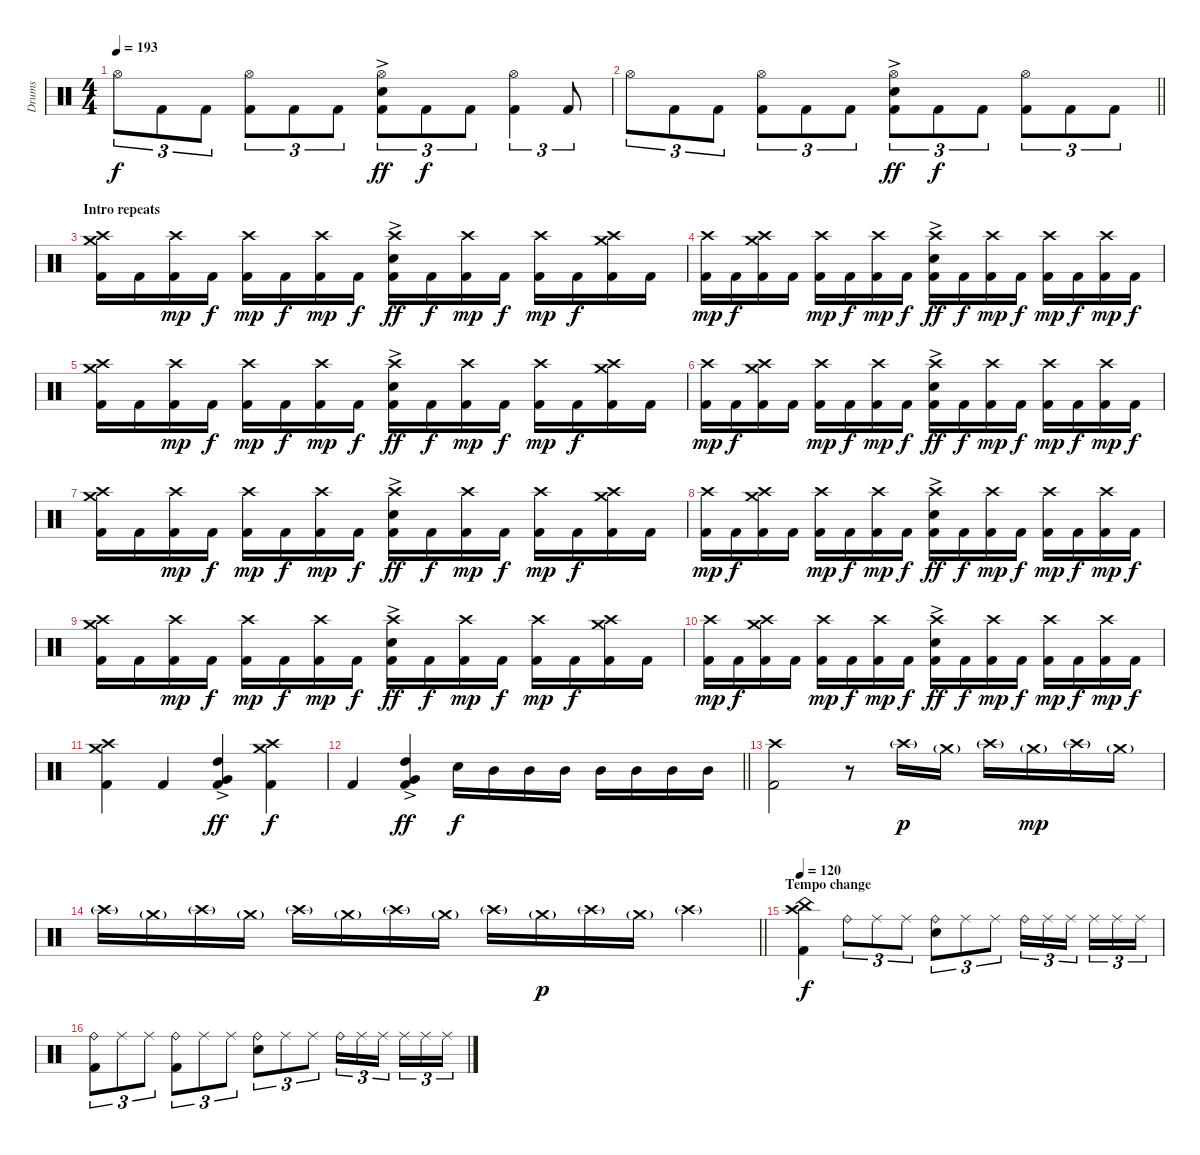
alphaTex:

\track ("Drums" "Drums") {instrument percussion}
\staff {score}
\articulation defaults
\ts (4 4)
\tempo 193
\clef neutral
\ks c "Hi-Hat (open)".8{tu (3 2) dy f} "Kick (hit) 2".8{tu (3 2)} "Kick (hit) 2".8{tu (3 2)}
("Hi-Hat (open)" "Kick (hit) 2").8{tu (3 2)} "Kick (hit) 2".8{tu (3 2)} "Kick (hit) 2".8{tu (3 2)} ("Hi-Hat (open)" "Electric Snare (hit)"{ac} "Kick (hit) 2").8{tu (3 2) dy ff} "Kick (hit) 2".8{tu (3 2) dy f} "Kick (hit) 2".8{tu (3 2)} ("Hi-Hat (open)" "Kick (hit) 2").4{tu (3 2)} "Kick (hit) 2".8{tu (3 2)} |
\barLineRight lightlight "Hi-Hat (open)".8{tu (3 2)} "Kick (hit) 2".8{tu (3 2)} "Kick (hit) 2".8{tu (3 2)}
("Hi-Hat (open)" "Kick (hit) 2").8{tu (3 2)} "Kick (hit) 2".8{tu (3 2)} "Kick (hit) 2".8{tu (3 2)} ("Hi-Hat (open)" "Electric Snare (hit)"{ac} "Kick (hit) 2").8{tu (3 2) dy ff} "Kick (hit) 2".8{tu (3 2) dy f} "Kick (hit) 2".8{tu (3 2)} ("Hi-Hat (open)" "Kick (hit) 2").8{tu (3 2)} "Kick (hit) 2".8{tu (3 2)} "Kick (hit) 2".8{tu (3 2)} |
\section ("" "Intro repeats")
("Crash high (hit)" "Crash medium (hit)" "Kick (hit) 2").16 "Kick (hit) 2".16 ("Crash high (hit)" "Kick (hit) 2").16{dy mp} "Kick (hit) 2".16{dy f} ("Crash high (hit)" "Kick (hit) 2").16{dy mp} "Kick (hit) 2".16{dy f} ("Crash high (hit)" "Kick (hit) 2").16{dy mp} "Kick (hit) 2".16{dy f} ("Crash high (hit)" "Electric Snare (hit)"{ac} "Kick (hit) 2").16{dy ff} "Kick (hit) 2".16{dy f} ("Crash high (hit)" "Kick (hit) 2").16{dy mp} "Kick (hit) 2".16{dy f} ("Crash high (hit)" "Kick (hit) 2").16{dy mp} "Kick (hit) 2".16{dy f} ("Crash high (hit)" "Crash medium (hit)" "Kick (hit) 2").16 "Kick (hit) 2".16 |
("Crash high (hit)" "Kick (hit) 2").16{dy mp} "Kick (hit) 2".16{dy f} ("Crash high (hit)" "Crash medium (hit)" "Kick (hit) 2").16 "Kick (hit) 2".16 ("Crash high (hit)" "Kick (hit) 2").16{dy mp} "Kick (hit) 2".16{dy f} ("Crash high (hit)" "Kick (hit) 2").16{dy mp} "Kick (hit) 2".16{dy f} ("Crash high (hit)" "Electric Snare (hit)"{ac} "Kick (hit) 2").16{dy ff} "Kick (hit) 2".16{dy f} ("Crash high (hit)" "Kick (hit) 2").16{dy mp} "Kick (hit) 2".16{dy f} ("Crash high (hit)" "Kick (hit) 2").16{dy mp} "Kick (hit) 2".16{dy f} ("Crash high (hit)" "Kick (hit) 2").16{dy mp} "Kick (hit) 2".16{dy f} |
("Crash high (hit)" "Crash medium (hit)" "Kick (hit) 2").16 "Kick (hit) 2".16 ("Crash high (hit)" "Kick (hit) 2").16{dy mp} "Kick (hit) 2".16{dy f} ("Crash high (hit)" "Kick (hit) 2").16{dy mp} "Kick (hit) 2".16{dy f} ("Crash high (hit)" "Kick (hit) 2").16{dy mp} "Kick (hit) 2".16{dy f} ("Crash high (hit)" "Electric Snare (hit)"{ac} "Kick (hit) 2").16{dy ff} "Kick (hit) 2".16{dy f} ("Crash high (hit)" "Kick (hit) 2").16{dy mp} "Kick (hit) 2".16{dy f} ("Crash high (hit)" "Kick (hit) 2").16{dy mp} "Kick (hit) 2".16{dy f} ("Crash high (hit)" "Crash medium (hit)" "Kick (hit) 2").16 "Kick (hit) 2".16 |
("Crash high (hit)" "Kick (hit) 2").16{dy mp} "Kick (hit) 2".16{dy f} ("Crash high (hit)" "Crash medium (hit)" "Kick (hit) 2").16 "Kick (hit) 2".16 ("Crash high (hit)" "Kick (hit) 2").16{dy mp} "Kick (hit) 2".16{dy f} ("Crash high (hit)" "Kick (hit) 2").16{dy mp} "Kick (hit) 2".16{dy f} ("Crash high (hit)" "Electric Snare (hit)"{ac} "Kick (hit) 2").16{dy ff} "Kick (hit) 2".16{dy f} ("Crash high (hit)" "Kick (hit) 2").16{dy mp} "Kick (hit) 2".16{dy f} ("Crash high (hit)" "Kick (hit) 2").16{dy mp} "Kick (hit) 2".16{dy f} ("Crash high (hit)" "Kick (hit) 2").16{dy mp} "Kick (hit) 2".16{dy f} |
("Crash high (hit)" "Crash medium (hit)" "Kick (hit) 2").16 "Kick (hit) 2".16 ("Crash high (hit)" "Kick (hit) 2").16{dy mp} "Kick (hit) 2".16{dy f} ("Crash high (hit)" "Kick (hit) 2").16{dy mp} "Kick (hit) 2".16{dy f} ("Crash high (hit)" "Kick (hit) 2").16{dy mp} "Kick (hit) 2".16{dy f} ("Crash high (hit)" "Electric Snare (hit)"{ac} "Kick (hit) 2").16{dy ff} "Kick (hit) 2".16{dy f} ("Crash high (hit)" "Kick (hit) 2").16{dy mp} "Kick (hit) 2".16{dy f} ("Crash high (hit)" "Kick (hit) 2").16{dy mp} "Kick (hit) 2".16{dy f} ("Crash high (hit)" "Crash medium (hit)" "Kick (hit) 2").16 "Kick (hit) 2".16 |
("Crash high (hit)" "Kick (hit) 2").16{dy mp} "Kick (hit) 2".16{dy f} ("Crash high (hit)" "Crash medium (hit)" "Kick (hit) 2").16 "Kick (hit) 2".16 ("Crash high (hit)" "Kick (hit) 2").16{dy mp} "Kick (hit) 2".16{dy f} ("Crash high (hit)" "Kick (hit) 2").16{dy mp} "Kick (hit) 2".16{dy f} ("Crash high (hit)" "Electric Snare (hit)"{ac} "Kick (hit) 2").16{dy ff} "Kick (hit) 2".16{dy f} ("Crash high (hit)" "Kick (hit) 2").16{dy mp} "Kick (hit) 2".16{dy f} ("Crash high (hit)" "Kick (hit) 2").16{dy mp} "Kick (hit) 2".16{dy f} ("Crash high (hit)" "Kick (hit) 2").16{dy mp} "Kick (hit) 2".16{dy f} |
("Crash high (hit)" "Crash medium (hit)" "Kick (hit) 2").16 "Kick (hit) 2".16 ("Crash high (hit)" "Kick (hit) 2").16{dy mp} "Kick (hit) 2".16{dy f} ("Crash high (hit)" "Kick (hit) 2").16{dy mp} "Kick (hit) 2".16{dy f} ("Crash high (hit)" "Kick (hit) 2").16{dy mp} "Kick (hit) 2".16{dy f} ("Crash high (hit)" "Electric Snare (hit)"{ac} "Kick (hit) 2").16{dy ff} "Kick (hit) 2".16{dy f} ("Crash high (hit)" "Kick (hit) 2").16{dy mp} "Kick (hit) 2".16{dy f} ("Crash high (hit)" "Kick (hit) 2").16{dy mp} "Kick (hit) 2".16{dy f} ("Crash high (hit)" "Crash medium (hit)" "Kick (hit) 2").16 "Kick (hit) 2".16 |
("Crash high (hit)" "Kick (hit) 2").16{dy mp} "Kick (hit) 2".16{dy f} ("Crash high (hit)" "Crash medium (hit)" "Kick (hit) 2").16 "Kick (hit) 2".16 ("Crash high (hit)" "Kick (hit) 2").16{dy mp} "Kick (hit) 2".16{dy f} ("Crash high (hit)" "Kick (hit) 2").16{dy mp} "Kick (hit) 2".16{dy f} ("Crash high (hit)" "Electric Snare (hit)"{ac} "Kick (hit) 2").16{dy ff} "Kick (hit) 2".16{dy f} ("Crash high (hit)" "Kick (hit) 2").16{dy mp} "Kick (hit) 2".16{dy f} ("Crash high (hit)" "Kick (hit) 2").16{dy mp} "Kick (hit) 2".16{dy f} ("Crash high (hit)" "Kick (hit) 2").16{dy mp} "Kick (hit) 2".16{dy f} |
("Crash high (hit)" "Crash medium (hit)" "Kick (hit) 2").4 "Kick (hit) 2".4 ("High Tom (hit)"{ac} "Very Low Tom (hit)"{ac} "Kick (hit) 2").4{dy ff} ("Crash high (hit)" "Crash medium (hit)" "Kick (hit) 2").4{dy f} |
\barLineRight lightlight "Kick (hit) 2".4
("High Tom (hit)"{ac} "Very Low Tom (hit)"{ac} "Kick (hit) 2").4{dy ff} "Electric Snare (hit)".16{dy f} "Mid Tom (hit)".16 "Mid Tom (hit)".16 "Mid Tom (hit)".16 "Mid Tom (hit)".16 "Mid Tom (hit)".16 "Mid Tom (hit)".16 "Mid Tom (hit)".16 |
("Crash high (hit)" "Kick (hit) 2").2 r.8 "Crash high (hit)"{g}.16{dy p} "Crash medium (hit)"{g}.16 "Crash high (hit)"{g}.16 "Crash medium (hit)"{g}.16{dy mp} "Crash high (hit)"{g}.16 "Crash medium (hit)"{g}.16 |
\barLineRight lightlight "Crash high (hit)"{g}.16 "Crash medium (hit)"{g}.16 "Crash high (hit)"{g}.16 "Crash medium (hit)"{g}.16 "Crash high (hit)"{g}.16 "Crash medium (hit)"{g}.16 "Crash high (hit)"{g}.16 "Crash medium (hit)"{g}.16 "Crash high (hit)"{g}.16 "Crash medium (hit)"{g}.16{dy p} "Crash high (hit)"{g}.16 "Crash medium (hit)"{g}.16 "Crash high (hit)"{g}.4
|
\section ("" "Tempo change")
\tempo 120
("Crash high (hit)" "China (hit)" "Kick (hit) 2").4{dy f} "Ride (bell)".8{tu (3 2)} "Ride (middle)".8{tu (3 2)} "Ride (middle)".8{tu (3 2)} ("Ride (bell)" "Electric Snare (hit)").8{tu (3 2)} "Ride (middle)".8{tu (3 2)} "Ride (middle)".8{tu (3 2)} "Ride (bell)".16{tu (3 2)} "Ride (middle)".16{tu (3 2)} "Ride (middle)".16{tu (3 2) beam splitsecondary} "Ride (middle)".16{tu (3 2)} "Ride (middle)".16{tu (3 2)} "Ride (middle)".16{tu (3 2)} |
("Ride (bell)" "Kick (hit) 2").8{tu (3 2)} "Ride (middle)".8{tu (3 2)} "Ride (middle)".8{tu (3 2)} ("Ride (bell)" "Kick (hit) 2").8{tu (3 2)} "Ride (middle)".8{tu (3 2)} "Ride (middle)".8{tu (3 2)} ("Ride (bell)" "Electric Snare (hit)").8{tu (3 2)} "Ride (middle)".8{tu (3 2)} "Ride (middle)".8{tu (3 2)} "Ride (bell)".16{tu (3 2)} "Ride (middle)".16{tu (3 2)} "Ride (middle)".16{tu (3 2) beam splitsecondary} "Ride (middle)".16{tu (3 2)} "Ride (middle)".16{tu (3 2)} "Ride (middle)".16{tu (3 2)}
